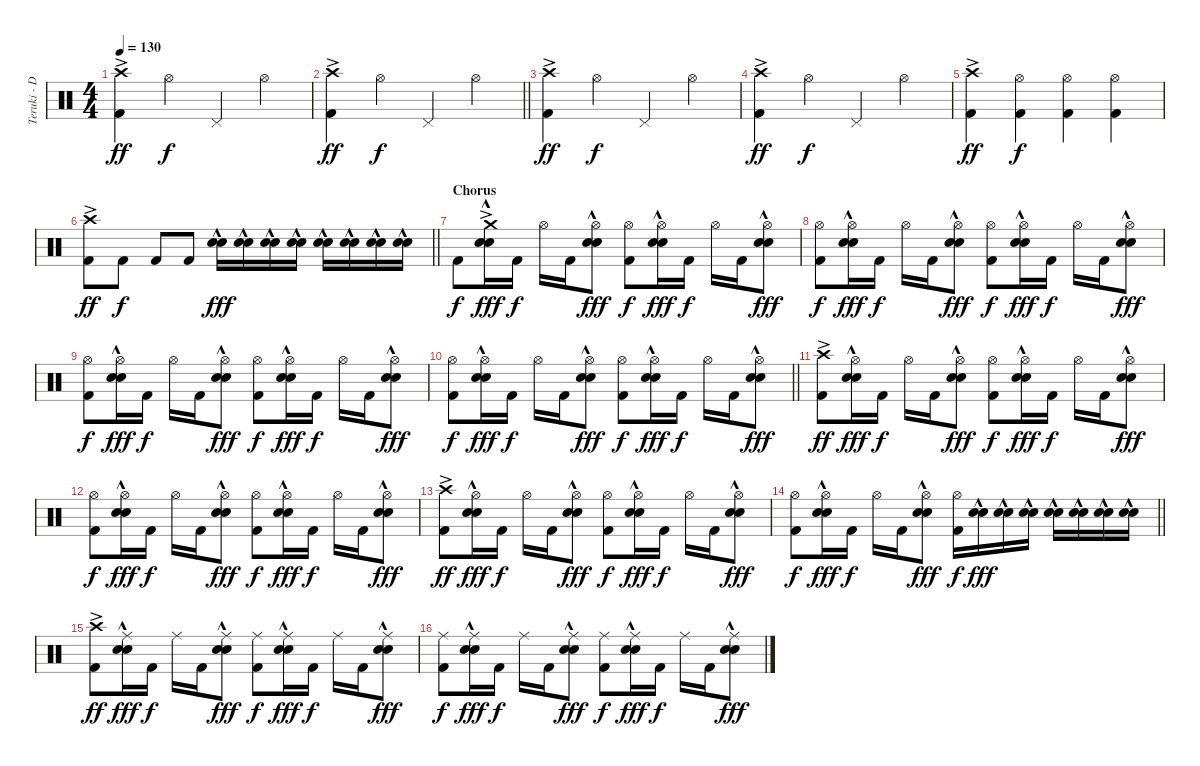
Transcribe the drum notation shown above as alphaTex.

\track ("Teruki - Drums" "Teruki - D") {instrument percussion}
\staff {score}
\articulation defaults
\ts (4 4)
\tempo 130
\clef neutral
\ks c
("Crash high (hit)"{ac} "Kick (hit) 2").4{dy ff} "Hi-Hat (open)".4{dy f} "Pedal Hi-Hat (hit)".4 "Hi-Hat (open)".4 |
\barLineRight lightlight
("Crash high (hit)"{ac} "Kick (hit) 2").4{dy ff} "Hi-Hat (open)".4{dy f} "Pedal Hi-Hat (hit)".4 "Hi-Hat (open)".4 |
("Crash high (hit)"{ac} "Kick (hit) 2").4{dy ff} "Hi-Hat (open)".4{dy f} "Pedal Hi-Hat (hit)".4 "Hi-Hat (open)".4 |
("Crash high (hit)"{ac} "Kick (hit) 2").4{dy ff} "Hi-Hat (open)".4{dy f} "Pedal Hi-Hat (hit)".4 "Hi-Hat (open)".4 |
("Crash high (hit)"{ac} "Kick (hit) 2").4{dy ff} ("Hi-Hat (open)" "Kick (hit) 2").4{dy f} ("Hi-Hat (open)" "Kick (hit) 2").4 ("Hi-Hat (open)" "Kick (hit) 2").4 |
\barLineRight lightlight
("Crash high (hit)"{ac} "Kick (hit) 2").8{dy ff} "Kick (hit) 2".8{dy f} "Kick (hit) 2".8 "Kick (hit) 2".8 ("Electric Snare (hit)"{hac} "Snare (hit) 2").16{dy fff} ("Electric Snare (hit)"{hac} "Snare (hit) 2").16 ("Electric Snare (hit)"{hac} "Snare (hit) 2").16 ("Electric Snare (hit)"{hac} "Snare (hit) 2").16 ("Electric Snare (hit)"{hac} "Snare (hit) 2").16 ("Electric Snare (hit)"{hac} "Snare (hit) 2").16 ("Electric Snare (hit)"{hac} "Snare (hit) 2").16 ("Electric Snare (hit)"{hac} "Snare (hit) 2").16 |
\section ("" "Chorus")
"Kick (hit) 2".8{dy f} ("Crash medium (hit)"{ac} "Electric Snare (hit)"{hac} "Snare (hit) 2").16{dy fff} "Kick (hit) 2".16{dy f} "Hi-Hat (open)".16 "Kick (hit) 2".16 ("Hi-Hat (open)" "Electric Snare (hit)"{hac} "Snare (hit) 2").8{dy fff} ("Hi-Hat (open)" "Kick (hit) 2").8{dy f} ("Hi-Hat (open)" "Electric Snare (hit)"{hac} "Snare (hit) 2").16{dy fff} "Kick (hit) 2".16{dy f} "Hi-Hat (open)".16 "Kick (hit) 2".16 ("Hi-Hat (open)" "Electric Snare (hit)"{hac} "Snare (hit) 2").8{dy fff} |
("Hi-Hat (open)" "Kick (hit) 2").8{dy f} ("Hi-Hat (open)" "Electric Snare (hit)"{hac} "Snare (hit) 2").16{dy fff} "Kick (hit) 2".16{dy f} "Hi-Hat (open)".16 "Kick (hit) 2".16 ("Hi-Hat (open)" "Electric Snare (hit)"{hac} "Snare (hit) 2").8{dy fff} ("Hi-Hat (open)" "Kick (hit) 2").8{dy f} ("Hi-Hat (open)" "Electric Snare (hit)"{hac} "Snare (hit) 2").16{dy fff} "Kick (hit) 2".16{dy f} "Hi-Hat (open)".16 "Kick (hit) 2".16 ("Hi-Hat (open)" "Electric Snare (hit)"{hac} "Snare (hit) 2").8{dy fff} |
("Hi-Hat (open)" "Kick (hit) 2").8{dy f} ("Hi-Hat (open)" "Electric Snare (hit)"{hac} "Snare (hit) 2").16{dy fff} "Kick (hit) 2".16{dy f} "Hi-Hat (open)".16 "Kick (hit) 2".16 ("Hi-Hat (open)" "Electric Snare (hit)"{hac} "Snare (hit) 2").8{dy fff} ("Hi-Hat (open)" "Kick (hit) 2").8{dy f} ("Hi-Hat (open)" "Electric Snare (hit)"{hac} "Snare (hit) 2").16{dy fff} "Kick (hit) 2".16{dy f} "Hi-Hat (open)".16 "Kick (hit) 2".16 ("Hi-Hat (open)" "Electric Snare (hit)"{hac} "Snare (hit) 2").8{dy fff} |
\barLineRight lightlight
("Hi-Hat (open)" "Kick (hit) 2").8{dy f} ("Hi-Hat (open)" "Electric Snare (hit)"{hac} "Snare (hit) 2").16{dy fff} "Kick (hit) 2".16{dy f} "Hi-Hat (open)".16 "Kick (hit) 2".16 ("Hi-Hat (open)" "Electric Snare (hit)"{hac} "Snare (hit) 2").8{dy fff} ("Hi-Hat (open)" "Kick (hit) 2").8{dy f} ("Hi-Hat (open)" "Electric Snare (hit)"{hac} "Snare (hit) 2").16{dy fff} "Kick (hit) 2".16{dy f} "Hi-Hat (open)".16 "Kick (hit) 2".16 ("Hi-Hat (open)" "Electric Snare (hit)"{hac} "Snare (hit) 2").8{dy fff} |
("Crash high (hit)"{ac} "Kick (hit) 2").8{dy ff} ("Hi-Hat (open)" "Electric Snare (hit)"{hac} "Snare (hit) 2").16{dy fff} "Kick (hit) 2".16{dy f} "Hi-Hat (open)".16 "Kick (hit) 2".16 ("Hi-Hat (open)" "Electric Snare (hit)"{hac} "Snare (hit) 2").8{dy fff} ("Hi-Hat (open)" "Kick (hit) 2").8{dy f} ("Hi-Hat (open)" "Electric Snare (hit)"{hac} "Snare (hit) 2").16{dy fff} "Kick (hit) 2".16{dy f} "Hi-Hat (open)".16 "Kick (hit) 2".16 ("Hi-Hat (open)" "Electric Snare (hit)"{hac} "Snare (hit) 2").8{dy fff} |
("Hi-Hat (open)" "Kick (hit) 2").8{dy f} ("Hi-Hat (open)" "Electric Snare (hit)"{hac} "Snare (hit) 2").16{dy fff} "Kick (hit) 2".16{dy f} "Hi-Hat (open)".16 "Kick (hit) 2".16 ("Hi-Hat (open)" "Electric Snare (hit)"{hac} "Snare (hit) 2").8{dy fff} ("Hi-Hat (open)" "Kick (hit) 2").8{dy f} ("Hi-Hat (open)" "Electric Snare (hit)"{hac} "Snare (hit) 2").16{dy fff} "Kick (hit) 2".16{dy f} "Hi-Hat (open)".16 "Kick (hit) 2".16 ("Hi-Hat (open)" "Electric Snare (hit)"{hac} "Snare (hit) 2").8{dy fff} |
("Crash high (hit)"{ac} "Kick (hit) 2").8{dy ff} ("Hi-Hat (open)" "Electric Snare (hit)"{hac} "Snare (hit) 2").16{dy fff} "Kick (hit) 2".16{dy f} "Hi-Hat (open)".16 "Kick (hit) 2".16 ("Hi-Hat (open)" "Electric Snare (hit)"{hac} "Snare (hit) 2").8{dy fff} ("Hi-Hat (open)" "Kick (hit) 2").8{dy f} ("Hi-Hat (open)" "Electric Snare (hit)"{hac} "Snare (hit) 2").16{dy fff} "Kick (hit) 2".16{dy f} "Hi-Hat (open)".16 "Kick (hit) 2".16 ("Hi-Hat (open)" "Electric Snare (hit)"{hac} "Snare (hit) 2").8{dy fff} |
\barLineRight lightlight
("Hi-Hat (open)" "Kick (hit) 2").8{dy f} ("Hi-Hat (open)" "Electric Snare (hit)"{hac} "Snare (hit) 2").16{dy fff} "Kick (hit) 2".16{dy f} "Hi-Hat (open)".16 "Kick (hit) 2".16 ("Hi-Hat (open)" "Electric Snare (hit)"{hac} "Snare (hit) 2").8{dy fff} ("Hi-Hat (open)" "Kick (hit) 2").16{dy f} ("Electric Snare (hit)"{hac} "Snare (hit) 2").16{dy fff} ("Electric Snare (hit)"{hac} "Snare (hit) 2").16 ("Electric Snare (hit)"{hac} "Snare (hit) 2").16 ("Electric Snare (hit)"{hac} "Snare (hit) 2").16 ("Electric Snare (hit)"{hac} "Snare (hit) 2").16 ("Electric Snare (hit)"{hac} "Snare (hit) 2").16 ("Electric Snare (hit)"{hac} "Snare (hit) 2").16 |
\section ("" "")
("Crash high (hit)"{ac} "Kick (hit) 2").8{dy ff} ("Ride (middle)" "Electric Snare (hit)"{hac} "Snare (hit) 2").16{dy fff} "Kick (hit) 2".16{dy f} "Ride (middle)".16 "Kick (hit) 2".16 ("Ride (middle)" "Electric Snare (hit)"{hac} "Snare (hit) 2").8{dy fff} ("Ride (middle)" "Kick (hit) 2").8{dy f} ("Ride (middle)" "Electric Snare (hit)"{hac} "Snare (hit) 2").16{dy fff} "Kick (hit) 2".16{dy f} "Ride (middle)".16 "Kick (hit) 2".16 ("Ride (middle)" "Electric Snare (hit)"{hac} "Snare (hit) 2").8{dy fff} |
("Ride (middle)" "Kick (hit) 2").8{dy f} ("Ride (middle)" "Electric Snare (hit)"{hac} "Snare (hit) 2").16{dy fff} "Kick (hit) 2".16{dy f} "Ride (middle)".16 "Kick (hit) 2".16 ("Ride (middle)" "Electric Snare (hit)"{hac} "Snare (hit) 2").8{dy fff} ("Ride (middle)" "Kick (hit) 2").8{dy f} ("Ride (middle)" "Electric Snare (hit)"{hac} "Snare (hit) 2").16{dy fff} "Kick (hit) 2".16{dy f} "Ride (middle)".16 "Kick (hit) 2".16 ("Ride (middle)" "Electric Snare (hit)"{hac} "Snare (hit) 2").8{dy fff}
